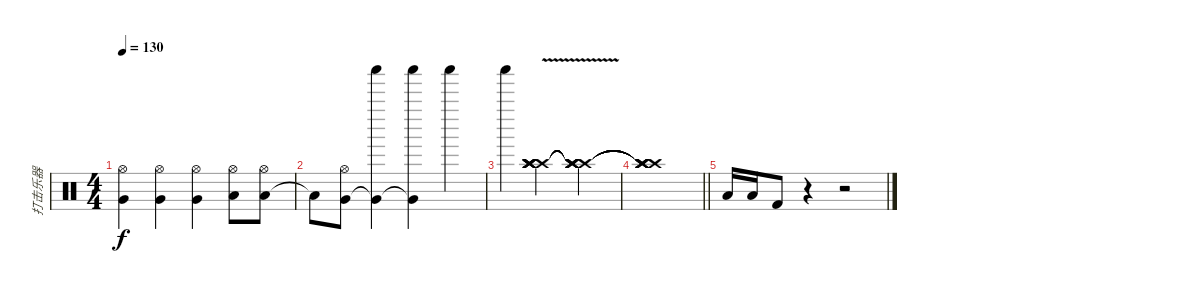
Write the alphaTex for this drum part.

\track ("打击乐器" "打击乐器") {instrument percussion}
\staff {score}
\articulation defaults
\ts (4 4)
\tempo 130
\clef neutral
\ks c
("Very Low Tom (hit)" "Hi-Hat (open)").4{dy f} ("Very Low Tom (hit)" "Hi-Hat (open)").4 ("Very Low Tom (hit)" "Hi-Hat (open)").4 ("Low Tom (hit)" "Hi-Hat (open)").8 ("Low Tom (hit)" "Hi-Hat (open)").8 |
"Low Tom (hit)"{t}.8 ("Very Low Tom (hit)" "Hi-Hat (open)").8 ("Very Low Tom (hit)"{t} "Shaker (hit)").4 ("Very Low Tom (hit)"{t} "Shaker (hit)").4 "Shaker (hit)".4 |
"Shaker (hit)".4 ("Crash high (hit)" "Crash high (hit)" "Crash high (hit)" "Crash high (hit)" "Crash high (hit)" "Crash high (hit)"{v}).2 ("Crash high (hit)"{t} "Crash high (hit)"{t} "Crash high (hit)"{t} "Crash high (hit)"{t} "Crash high (hit)"{t} "Crash high (hit)"{t}).4 |
\barLineRight lightlight
("Crash high (hit)"{t} "Crash high (hit)"{t} "Crash high (hit)"{t} "Crash high (hit)"{t} "Crash high (hit)"{t} "Crash high (hit)"{t}).1 |
"Low Tom (hit)".16 "Low Tom (hit)".16 "Kick (hit) 2".8 r.4 r.2
